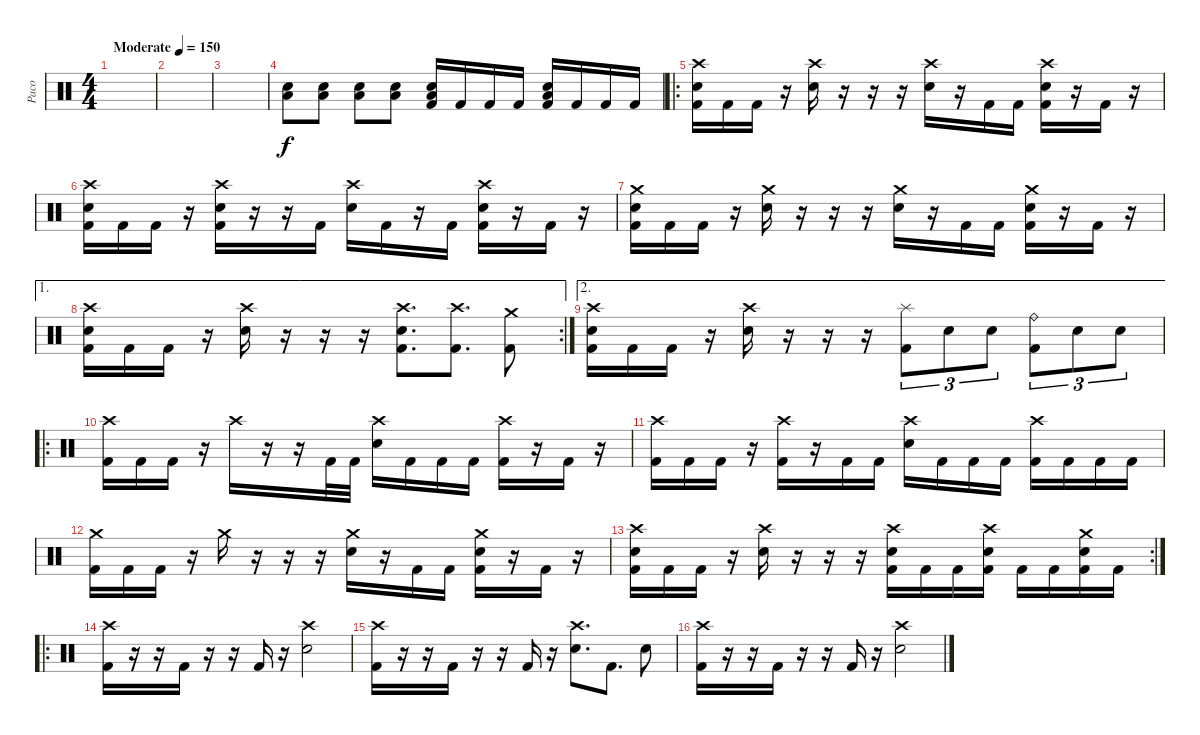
\track ("Paco" "Paco") {instrument percussion}
\staff {score}
\articulation defaults
\ts (4 4)
\tempo (150 "Moderate")
\clef neutral
\ks c
|
|
|
("Electric Snare (hit)" "Low Floor Tom (hit)").8{volume 13} ("Electric Snare (hit)" "Low Floor Tom (hit)").8 ("Electric Snare (hit)" "Low Floor Tom (hit)").8 ("Electric Snare (hit)" "Low Floor Tom (hit)").8 ("Electric Snare (hit)" "Low Floor Tom (hit)" "Kick (hit) 2").16 "Kick (hit) 2".16 "Kick (hit) 2".16 "Kick (hit) 2".16 ("Electric Snare (hit)" "Low Floor Tom (hit)" "Kick (hit) 2").16 "Kick (hit) 2".16 "Kick (hit) 2".16 "Kick (hit) 2".16 |
\ro
("Crash high (hit)" "Electric Snare (hit)" "Kick (hit) 2").16 "Kick (hit) 2".16 "Kick (hit) 2".16 r.16 ("Crash high (hit)" "Electric Snare (hit)").16 r.16 r.16 r.16 ("Crash high (hit)" "Electric Snare (hit)").16 r.16 "Kick (hit) 2".16 "Kick (hit) 2".16 ("Crash high (hit)" "Electric Snare (hit)" "Kick (hit) 2").16 r.16 "Kick (hit) 2".16 r.16 |
("Crash high (hit)" "Electric Snare (hit)" "Kick (hit) 2").16 "Kick (hit) 2".16 "Kick (hit) 2".16 r.16 ("Crash high (hit)" "Electric Snare (hit)" "Kick (hit) 2").16 r.16 r.16 "Kick (hit) 2".16 ("Crash high (hit)" "Electric Snare (hit)").16 "Kick (hit) 2".16 r.16 "Kick (hit) 2".16 ("Crash high (hit)" "Electric Snare (hit)" "Kick (hit) 2").16 r.16 "Kick (hit) 2".16 r.16 |
("Crash medium (hit)" "Electric Snare (hit)" "Kick (hit) 2").16 "Kick (hit) 2".16 "Kick (hit) 2".16 r.16 ("Crash medium (hit)" "Electric Snare (hit)").16 r.16 r.16 r.16 ("Crash medium (hit)" "Electric Snare (hit)").16 r.16 "Kick (hit) 2".16 "Kick (hit) 2".16 ("Crash medium (hit)" "Electric Snare (hit)" "Kick (hit) 2").16 r.16 "Kick (hit) 2".16 r.16 |
\ae 1
\rc 2
("Crash high (hit)" "Electric Snare (hit)" "Kick (hit) 2").16 "Kick (hit) 2".16 "Kick (hit) 2".16 r.16 ("Crash high (hit)" "Electric Snare (hit)").16 r.16 r.16 r.16 ("Crash high (hit)" "Electric Snare (hit)" "Kick (hit) 2").8{d} ("Crash high (hit)" "Kick (hit) 2").8{d} ("Crash medium (hit)" "Kick (hit) 2").8 |
\ae 2
("Crash high (hit)" "Electric Snare (hit)" "Kick (hit) 2").16 "Kick (hit) 2".16 "Kick (hit) 2".16 r.16 ("Crash high (hit)" "Electric Snare (hit)").16 r.16 r.16 r.16 ("Splash (hit)" "Kick (hit) 2").8{tu (3 2)} "Electric Snare (hit)".8{tu (3 2)} "Electric Snare (hit)".8{tu (3 2)} ("Ride (bell)" "Kick (hit) 2").8{tu (3 2)} "Electric Snare (hit)".8{tu (3 2)} "Electric Snare (hit)".8{tu (3 2)} |
\ro
("Crash high (hit)" "Kick (hit) 2").16 "Kick (hit) 2".16 "Kick (hit) 2".16 r.16 "Crash high (hit)".16 r.16 r.16 "Kick (hit) 2".32 "Kick (hit) 2".32 ("Crash high (hit)" "Electric Snare (hit)").16 "Kick (hit) 2".16 "Kick (hit) 2".16 "Kick (hit) 2".16 ("Crash high (hit)" "Kick (hit) 2").16 r.16 "Kick (hit) 2".16 r.16 |
("Crash high (hit)" "Kick (hit) 2").16 "Kick (hit) 2".16 "Kick (hit) 2".16 r.16 ("Crash high (hit)" "Kick (hit) 2").16 r.16 "Kick (hit) 2".16 "Kick (hit) 2".16 ("Crash high (hit)" "Electric Snare (hit)").16 "Kick (hit) 2".16 "Kick (hit) 2".16 "Kick (hit) 2".16 ("Crash high (hit)" "Kick (hit) 2").16 "Kick (hit) 2".16 "Kick (hit) 2".16 "Kick (hit) 2".16 |
("Crash medium (hit)" "Kick (hit) 2").16 "Kick (hit) 2".16 "Kick (hit) 2".16 r.16 "Crash medium (hit)".16 r.16 r.16 r.16 ("Crash medium (hit)" "Electric Snare (hit)").16 r.16 "Kick (hit) 2".16 "Kick (hit) 2".16 ("Crash medium (hit)" "Electric Snare (hit)" "Kick (hit) 2").16 r.16 "Kick (hit) 2".16 r.16 |
\rc 2
("Crash high (hit)" "Electric Snare (hit)" "Kick (hit) 2").16 "Kick (hit) 2".16 "Kick (hit) 2".16 r.16 ("Crash high (hit)" "Electric Snare (hit)").16 r.16 r.16 r.16 ("Crash high (hit)" "Electric Snare (hit)" "Kick (hit) 2").16 "Kick (hit) 2".16 "Kick (hit) 2".16 ("Crash high (hit)" "Electric Snare (hit)" "Kick (hit) 2").16 "Kick (hit) 2".16 "Kick (hit) 2".16 ("Crash medium (hit)" "Electric Snare (hit)" "Kick (hit) 2").16 "Kick (hit) 2".16 |
\ro
("Crash high (hit)" "Kick (hit) 2").16 r.16 r.16 "Kick (hit) 2".16 r.16 r.16 "Kick (hit) 2".16 r.16 ("Crash high (hit)" "Electric Snare (hit)").2 |
("Crash high (hit)" "Kick (hit) 2").16 r.16 r.16 "Kick (hit) 2".16 r.16 r.16 "Kick (hit) 2".16 r.16 ("Crash high (hit)" "Electric Snare (hit)").8{d} "Kick (hit) 2".8{d} "Electric Snare (hit)".8 |
("Crash high (hit)" "Kick (hit) 2").16 r.16 r.16 "Kick (hit) 2".16 r.16 r.16 "Kick (hit) 2".16 r.16 ("Crash high (hit)" "Electric Snare (hit)").2
